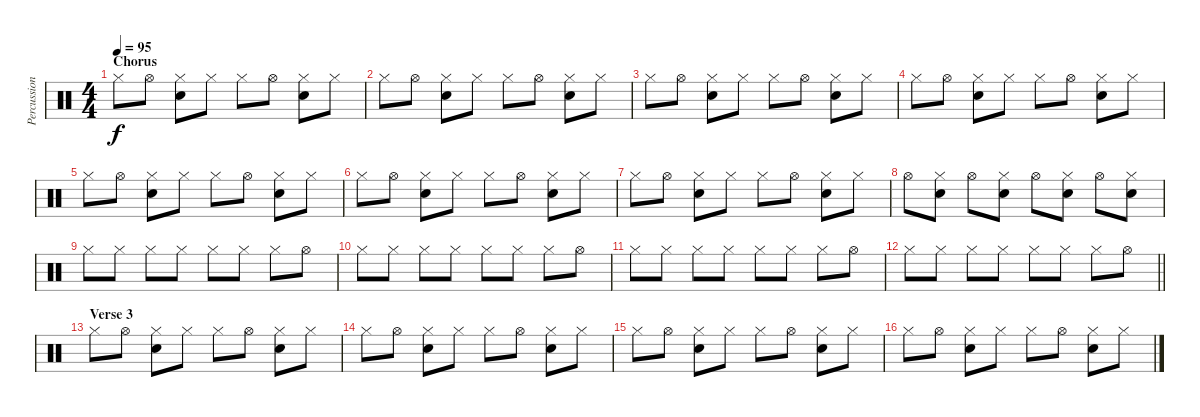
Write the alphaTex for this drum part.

\track ("Percussion" "Percussion") {instrument percussion}
\staff {score}
\articulation defaults
\ts (4 4)
\section ("" "Chorus")
\tempo 95
\clef neutral
\ks c "Hi-Hat (closed)".8{dy f} "Hi-Hat (open)".8
("Hi-Hat (closed)" "Snare (hit) 2").8 "Hi-Hat (closed)".8 "Hi-Hat (closed)".8 "Hi-Hat (open)".8 ("Hi-Hat (closed)" "Snare (hit) 2").8 "Hi-Hat (closed)".8 |
"Hi-Hat (closed)".8 "Hi-Hat (open)".8 ("Hi-Hat (closed)" "Snare (hit) 2").8 "Hi-Hat (closed)".8 "Hi-Hat (closed)".8 "Hi-Hat (open)".8 ("Hi-Hat (closed)" "Snare (hit) 2").8 "Hi-Hat (closed)".8 |
"Hi-Hat (closed)".8 "Hi-Hat (open)".8 ("Hi-Hat (closed)" "Snare (hit) 2").8 "Hi-Hat (closed)".8 "Hi-Hat (closed)".8 "Hi-Hat (open)".8 ("Hi-Hat (closed)" "Snare (hit) 2").8 "Hi-Hat (closed)".8 |
"Hi-Hat (closed)".8 "Hi-Hat (open)".8 ("Hi-Hat (closed)" "Snare (hit) 2").8 "Hi-Hat (closed)".8 "Hi-Hat (closed)".8 "Hi-Hat (open)".8 ("Hi-Hat (closed)" "Snare (hit) 2").8 "Hi-Hat (closed)".8 |
"Hi-Hat (closed)".8 "Hi-Hat (open)".8 ("Hi-Hat (closed)" "Snare (hit) 2").8 "Hi-Hat (closed)".8 "Hi-Hat (closed)".8 "Hi-Hat (open)".8 ("Hi-Hat (closed)" "Snare (hit) 2").8 "Hi-Hat (closed)".8 |
"Hi-Hat (closed)".8 "Hi-Hat (open)".8 ("Hi-Hat (closed)" "Snare (hit) 2").8 "Hi-Hat (closed)".8 "Hi-Hat (closed)".8 "Hi-Hat (open)".8 ("Hi-Hat (closed)" "Snare (hit) 2").8 "Hi-Hat (closed)".8 |
"Hi-Hat (closed)".8 "Hi-Hat (open)".8 ("Hi-Hat (closed)" "Snare (hit) 2").8 "Hi-Hat (closed)".8 "Hi-Hat (closed)".8 "Hi-Hat (open)".8 ("Hi-Hat (closed)" "Snare (hit) 2").8 "Hi-Hat (closed)".8 |
"Hi-Hat (open)".8 ("Hi-Hat (closed)" "Snare (hit) 2").8 "Hi-Hat (open)".8 ("Hi-Hat (closed)" "Snare (hit) 2").8 "Hi-Hat (open)".8 ("Hi-Hat (closed)" "Snare (hit) 2").8 "Hi-Hat (open)".8 ("Hi-Hat (closed)" "Snare (hit) 2").8 |
"Hi-Hat (closed)".8 "Hi-Hat (closed)".8 "Hi-Hat (closed)".8 "Hi-Hat (closed)".8 "Hi-Hat (closed)".8 "Hi-Hat (closed)".8 "Hi-Hat (closed)".8 "Hi-Hat (open)".8 |
"Hi-Hat (closed)".8 "Hi-Hat (closed)".8 "Hi-Hat (closed)".8 "Hi-Hat (closed)".8 "Hi-Hat (closed)".8 "Hi-Hat (closed)".8 "Hi-Hat (closed)".8 "Hi-Hat (open)".8 |
"Hi-Hat (closed)".8 "Hi-Hat (closed)".8 "Hi-Hat (closed)".8 "Hi-Hat (closed)".8 "Hi-Hat (closed)".8 "Hi-Hat (closed)".8 "Hi-Hat (closed)".8 "Hi-Hat (open)".8 |
\barLineRight lightlight "Hi-Hat (closed)".8 "Hi-Hat (closed)".8 "Hi-Hat (closed)".8 "Hi-Hat (closed)".8 "Hi-Hat (closed)".8 "Hi-Hat (closed)".8 "Hi-Hat (closed)".8 "Hi-Hat (open)".8
|
\section ("" "Verse 3")
"Hi-Hat (closed)".8 "Hi-Hat (open)".8 ("Hi-Hat (closed)" "Snare (hit) 2").8 "Hi-Hat (closed)".8 "Hi-Hat (closed)".8 "Hi-Hat (open)".8 ("Hi-Hat (closed)" "Snare (hit) 2").8 "Hi-Hat (closed)".8 |
"Hi-Hat (closed)".8 "Hi-Hat (open)".8 ("Hi-Hat (closed)" "Snare (hit) 2").8 "Hi-Hat (closed)".8 "Hi-Hat (closed)".8 "Hi-Hat (open)".8 ("Hi-Hat (closed)" "Snare (hit) 2").8 "Hi-Hat (closed)".8 |
"Hi-Hat (closed)".8 "Hi-Hat (open)".8 ("Hi-Hat (closed)" "Snare (hit) 2").8 "Hi-Hat (closed)".8 "Hi-Hat (closed)".8 "Hi-Hat (open)".8 ("Hi-Hat (closed)" "Snare (hit) 2").8 "Hi-Hat (closed)".8 |
"Hi-Hat (closed)".8 "Hi-Hat (open)".8 ("Hi-Hat (closed)" "Snare (hit) 2").8 "Hi-Hat (closed)".8 "Hi-Hat (closed)".8 "Hi-Hat (open)".8 ("Hi-Hat (closed)" "Snare (hit) 2").8 "Hi-Hat (closed)".8
